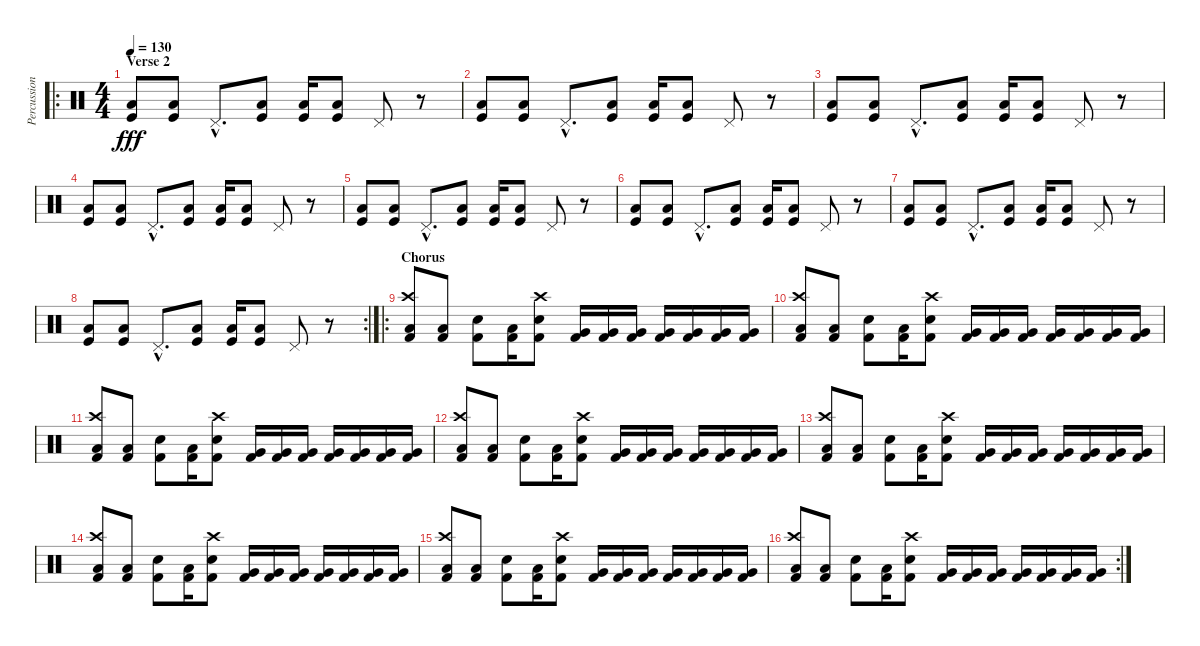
\track ("Percussion" "Percussion") {instrument percussion}
\staff {score}
\articulation defaults
\ro
\ts (4 4)
\section ("" "Verse 2")
\tempo 130
\clef neutral
\ks c
("Low Floor Tom (hit)" "Kick (hit)").8{dy fff volume 11} ("Low Floor Tom (hit)" "Kick (hit)").8 "Pedal Hi-Hat (hit)"{hac}.8{d} ("Low Floor Tom (hit)" "Kick (hit)").8 ("Low Floor Tom (hit)" "Kick (hit)").16 ("Low Floor Tom (hit)" "Kick (hit)").8 "Pedal Hi-Hat (hit)".8 r.8 |
("Low Floor Tom (hit)" "Kick (hit)").8 ("Low Floor Tom (hit)" "Kick (hit)").8 "Pedal Hi-Hat (hit)"{hac}.8{d} ("Low Floor Tom (hit)" "Kick (hit)").8 ("Low Floor Tom (hit)" "Kick (hit)").16 ("Low Floor Tom (hit)" "Kick (hit)").8 "Pedal Hi-Hat (hit)".8 r.8 |
("Low Floor Tom (hit)" "Kick (hit)").8 ("Low Floor Tom (hit)" "Kick (hit)").8 "Pedal Hi-Hat (hit)"{hac}.8{d} ("Low Floor Tom (hit)" "Kick (hit)").8 ("Low Floor Tom (hit)" "Kick (hit)").16 ("Low Floor Tom (hit)" "Kick (hit)").8 "Pedal Hi-Hat (hit)".8 r.8 |
("Low Floor Tom (hit)" "Kick (hit)").8 ("Low Floor Tom (hit)" "Kick (hit)").8 "Pedal Hi-Hat (hit)"{hac}.8{d} ("Low Floor Tom (hit)" "Kick (hit)").8 ("Low Floor Tom (hit)" "Kick (hit)").16 ("Low Floor Tom (hit)" "Kick (hit)").8 "Pedal Hi-Hat (hit)".8 r.8 |
("Low Floor Tom (hit)" "Kick (hit)").8 ("Low Floor Tom (hit)" "Kick (hit)").8 "Pedal Hi-Hat (hit)"{hac}.8{d} ("Low Floor Tom (hit)" "Kick (hit)").8 ("Low Floor Tom (hit)" "Kick (hit)").16 ("Low Floor Tom (hit)" "Kick (hit)").8 "Pedal Hi-Hat (hit)".8 r.8 |
("Low Floor Tom (hit)" "Kick (hit)").8 ("Low Floor Tom (hit)" "Kick (hit)").8 "Pedal Hi-Hat (hit)"{hac}.8{d} ("Low Floor Tom (hit)" "Kick (hit)").8 ("Low Floor Tom (hit)" "Kick (hit)").16 ("Low Floor Tom (hit)" "Kick (hit)").8 "Pedal Hi-Hat (hit)".8 r.8 |
("Low Floor Tom (hit)" "Kick (hit)").8 ("Low Floor Tom (hit)" "Kick (hit)").8 "Pedal Hi-Hat (hit)"{hac}.8{d} ("Low Floor Tom (hit)" "Kick (hit)").8 ("Low Floor Tom (hit)" "Kick (hit)").16 ("Low Floor Tom (hit)" "Kick (hit)").8 "Pedal Hi-Hat (hit)".8 r.8 |
\rc 2
("Low Floor Tom (hit)" "Kick (hit)").8 ("Low Floor Tom (hit)" "Kick (hit)").8 "Pedal Hi-Hat (hit)"{hac}.8{d} ("Low Floor Tom (hit)" "Kick (hit)").8 ("Low Floor Tom (hit)" "Kick (hit)").16 ("Low Floor Tom (hit)" "Kick (hit)").8 "Pedal Hi-Hat (hit)".8 r.8 |
\ro
\section ("" "Chorus")
("Crash high (hit)" "Low Floor Tom (hit)" "Kick (hit) 2").8 ("Low Floor Tom (hit)" "Kick (hit) 2").8 ("Electric Snare (hit)" "Kick (hit) 2").8 ("Low Floor Tom (hit)" "Kick (hit) 2").16 ("Crash high (hit)" "Electric Snare (hit)" "Kick (hit) 2").8 ("Very Low Tom (hit)" "Kick (hit) 2").16 ("Very Low Tom (hit)" "Kick (hit) 2").16 ("Very Low Tom (hit)" "Kick (hit) 2").16 ("Very Low Tom (hit)" "Kick (hit) 2").16 ("Very Low Tom (hit)" "Kick (hit) 2").16 ("Very Low Tom (hit)" "Kick (hit) 2").16 ("Very Low Tom (hit)" "Kick (hit) 2").16 |
("Crash high (hit)" "Low Floor Tom (hit)" "Kick (hit) 2").8 ("Low Floor Tom (hit)" "Kick (hit) 2").8 ("Electric Snare (hit)" "Kick (hit) 2").8 ("Low Floor Tom (hit)" "Kick (hit) 2").16 ("Crash high (hit)" "Electric Snare (hit)" "Kick (hit) 2").8 ("Very Low Tom (hit)" "Kick (hit) 2").16 ("Very Low Tom (hit)" "Kick (hit) 2").16 ("Very Low Tom (hit)" "Kick (hit) 2").16 ("Very Low Tom (hit)" "Kick (hit) 2").16 ("Very Low Tom (hit)" "Kick (hit) 2").16 ("Very Low Tom (hit)" "Kick (hit) 2").16 ("Very Low Tom (hit)" "Kick (hit) 2").16 |
("Crash high (hit)" "Low Floor Tom (hit)" "Kick (hit) 2").8 ("Low Floor Tom (hit)" "Kick (hit) 2").8 ("Electric Snare (hit)" "Kick (hit) 2").8 ("Low Floor Tom (hit)" "Kick (hit) 2").16 ("Crash high (hit)" "Electric Snare (hit)" "Kick (hit) 2").8 ("Very Low Tom (hit)" "Kick (hit) 2").16 ("Very Low Tom (hit)" "Kick (hit) 2").16 ("Very Low Tom (hit)" "Kick (hit) 2").16 ("Very Low Tom (hit)" "Kick (hit) 2").16 ("Very Low Tom (hit)" "Kick (hit) 2").16 ("Very Low Tom (hit)" "Kick (hit) 2").16 ("Very Low Tom (hit)" "Kick (hit) 2").16 |
("Crash high (hit)" "Low Floor Tom (hit)" "Kick (hit) 2").8 ("Low Floor Tom (hit)" "Kick (hit) 2").8 ("Electric Snare (hit)" "Kick (hit) 2").8 ("Low Floor Tom (hit)" "Kick (hit) 2").16 ("Crash high (hit)" "Electric Snare (hit)" "Kick (hit) 2").8 ("Very Low Tom (hit)" "Kick (hit) 2").16 ("Very Low Tom (hit)" "Kick (hit) 2").16 ("Very Low Tom (hit)" "Kick (hit) 2").16 ("Very Low Tom (hit)" "Kick (hit) 2").16 ("Very Low Tom (hit)" "Kick (hit) 2").16 ("Very Low Tom (hit)" "Kick (hit) 2").16 ("Very Low Tom (hit)" "Kick (hit) 2").16 |
("Crash high (hit)" "Low Floor Tom (hit)" "Kick (hit) 2").8 ("Low Floor Tom (hit)" "Kick (hit) 2").8 ("Electric Snare (hit)" "Kick (hit) 2").8 ("Low Floor Tom (hit)" "Kick (hit) 2").16 ("Crash high (hit)" "Electric Snare (hit)" "Kick (hit) 2").8 ("Very Low Tom (hit)" "Kick (hit) 2").16 ("Very Low Tom (hit)" "Kick (hit) 2").16 ("Very Low Tom (hit)" "Kick (hit) 2").16 ("Very Low Tom (hit)" "Kick (hit) 2").16 ("Very Low Tom (hit)" "Kick (hit) 2").16 ("Very Low Tom (hit)" "Kick (hit) 2").16 ("Very Low Tom (hit)" "Kick (hit) 2").16 |
("Crash high (hit)" "Low Floor Tom (hit)" "Kick (hit) 2").8 ("Low Floor Tom (hit)" "Kick (hit) 2").8 ("Electric Snare (hit)" "Kick (hit) 2").8 ("Low Floor Tom (hit)" "Kick (hit) 2").16 ("Crash high (hit)" "Electric Snare (hit)" "Kick (hit) 2").8 ("Very Low Tom (hit)" "Kick (hit) 2").16 ("Very Low Tom (hit)" "Kick (hit) 2").16 ("Very Low Tom (hit)" "Kick (hit) 2").16 ("Very Low Tom (hit)" "Kick (hit) 2").16 ("Very Low Tom (hit)" "Kick (hit) 2").16 ("Very Low Tom (hit)" "Kick (hit) 2").16 ("Very Low Tom (hit)" "Kick (hit) 2").16 |
("Crash high (hit)" "Low Floor Tom (hit)" "Kick (hit) 2").8 ("Low Floor Tom (hit)" "Kick (hit) 2").8 ("Electric Snare (hit)" "Kick (hit) 2").8 ("Low Floor Tom (hit)" "Kick (hit) 2").16 ("Crash high (hit)" "Electric Snare (hit)" "Kick (hit) 2").8 ("Very Low Tom (hit)" "Kick (hit) 2").16 ("Very Low Tom (hit)" "Kick (hit) 2").16 ("Very Low Tom (hit)" "Kick (hit) 2").16 ("Very Low Tom (hit)" "Kick (hit) 2").16 ("Very Low Tom (hit)" "Kick (hit) 2").16 ("Very Low Tom (hit)" "Kick (hit) 2").16 ("Very Low Tom (hit)" "Kick (hit) 2").16 |
\rc 2
("Crash high (hit)" "Low Floor Tom (hit)" "Kick (hit) 2").8 ("Low Floor Tom (hit)" "Kick (hit) 2").8 ("Electric Snare (hit)" "Kick (hit) 2").8 ("Low Floor Tom (hit)" "Kick (hit) 2").16 ("Crash high (hit)" "Electric Snare (hit)" "Kick (hit) 2").8 ("Very Low Tom (hit)" "Kick (hit) 2").16 ("Very Low Tom (hit)" "Kick (hit) 2").16 ("Very Low Tom (hit)" "Kick (hit) 2").16 ("Very Low Tom (hit)" "Kick (hit) 2").16 ("Very Low Tom (hit)" "Kick (hit) 2").16 ("Very Low Tom (hit)" "Kick (hit) 2").16 ("Very Low Tom (hit)" "Kick (hit) 2").16
